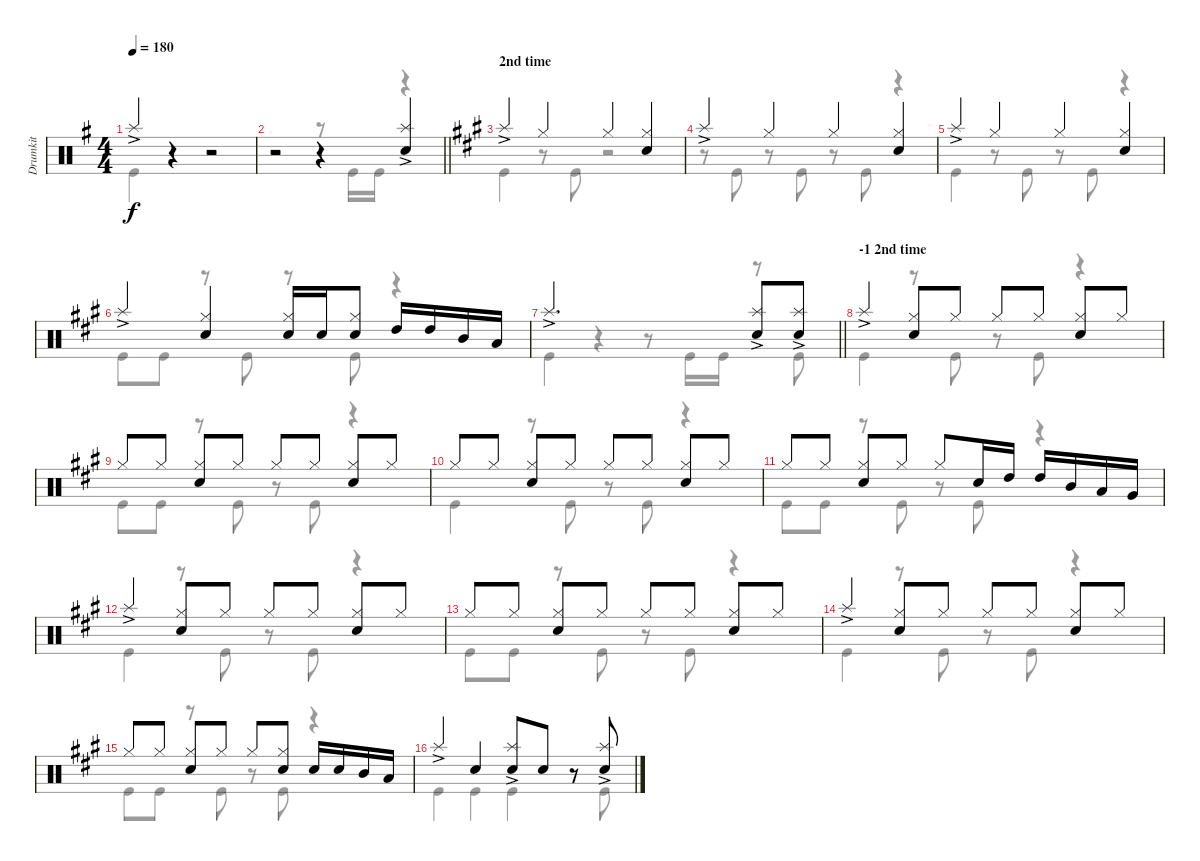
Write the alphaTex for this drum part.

\track ("Drumkit" "Drumkit") {instrument percussion}
\staff {score}
\articulation defaults
\voice
\ts (4 4)
\tempo 180
\clef neutral
\ks g "Splash (hit)"{ac}.4{dy f}
r.4 r.2 |
\barLineRight lightlight
r.2 r.4 ("Splash (hit)"{ac} "Snare (hit) 2").4 |
\section ("" "2nd time")
\ks a "Splash (hit)"{ac}.4 "Hi-Hat (closed)".4 "Hi-Hat (closed)".4
("Hi-Hat (closed)" "Snare (hit) 2").4 |
"Splash (hit)"{ac}.4 "Hi-Hat (closed)".4 "Hi-Hat (closed)".4 ("Hi-Hat (closed)" "Snare (hit) 2").4 |
"Splash (hit)"{ac}.4 "Hi-Hat (closed)".4 "Hi-Hat (closed)".4 ("Hi-Hat (closed)" "Snare (hit) 2").4 |
"Splash (hit)"{ac}.4 ("Hi-Hat (closed)" "Snare (hit) 2").4 ("Snare (hit) 2" "Hi-Hat (closed)").16 "Snare (hit) 2".16 ("Snare (hit) 2" "Hi-Hat (closed)").8 "High Tom (hit)".16 "High Tom (hit)".16 "Mid Tom (hit)".16 "Low Tom (hit)".16 |
\barLineRight lightlight "Splash (hit)"{ac}.2{d}
("Splash (hit)"{ac} "Snare (hit) 2").8 ("Snare (hit) 2" "Splash (hit)"{ac}).8 |
\section ("" "-1 2nd time")
"Splash (hit)"{ac}.4 ("Snare (hit) 2" "Hi-Hat (closed)").8 "Hi-Hat (closed)".8 "Hi-Hat (closed)".8 "Hi-Hat (closed)".8 ("Hi-Hat (closed)" "Snare (hit) 2").8 "Hi-Hat (closed)".8 |
"Hi-Hat (closed)".8 "Hi-Hat (closed)".8 ("Hi-Hat (closed)" "Snare (hit) 2").8 "Hi-Hat (closed)".8 "Hi-Hat (closed)".8 "Hi-Hat (closed)".8 ("Hi-Hat (closed)" "Snare (hit) 2").8 "Hi-Hat (closed)".8 |
"Hi-Hat (closed)".8 "Hi-Hat (closed)".8 ("Snare (hit) 2" "Hi-Hat (closed)").8 "Hi-Hat (closed)".8 "Hi-Hat (closed)".8 "Hi-Hat (closed)".8 ("Hi-Hat (closed)" "Snare (hit) 2").8 "Hi-Hat (closed)".8 |
"Hi-Hat (closed)".8 "Hi-Hat (closed)".8 ("Hi-Hat (closed)" "Snare (hit) 2").8 "Hi-Hat (closed)".8 "Hi-Hat (closed)".8 "Snare (hit) 2".16 "High Tom (hit)".16 "High Tom (hit)".16 "Mid Tom (hit)".16 "Low Tom (hit)".16 "Very Low Tom (hit)".16 |
"Splash (hit)"{ac}.4 ("Snare (hit) 2" "Hi-Hat (closed)").8 "Hi-Hat (closed)".8 "Hi-Hat (closed)".8 "Hi-Hat (closed)".8 ("Hi-Hat (closed)" "Snare (hit) 2").8 "Hi-Hat (closed)".8 |
"Hi-Hat (closed)".8 "Hi-Hat (closed)".8 ("Hi-Hat (closed)" "Snare (hit) 2").8 "Hi-Hat (closed)".8 "Hi-Hat (closed)".8 "Hi-Hat (closed)".8 ("Hi-Hat (closed)" "Snare (hit) 2").8 "Hi-Hat (closed)".8 |
"Splash (hit)"{ac}.4 ("Snare (hit) 2" "Hi-Hat (closed)").8 "Hi-Hat (closed)".8 "Hi-Hat (closed)".8 "Hi-Hat (closed)".8 ("Hi-Hat (closed)" "Snare (hit) 2").8 "Hi-Hat (closed)".8 |
"Hi-Hat (closed)".8 "Hi-Hat (closed)".8 ("Hi-Hat (closed)" "Snare (hit) 2").8 "Hi-Hat (closed)".8 "Hi-Hat (closed)".8 ("Snare (hit) 2" "Hi-Hat (closed)").8 "Snare (hit) 2".16 "Snare (hit) 2".16 "Mid Tom (hit)".16 "Low Tom (hit)".16 |
"Splash (hit)"{ac}.4 "Snare (hit) 2".4 ("Snare (hit) 2" "Splash (hit)"{ac}).8 "Snare (hit) 2".8 r.8 ("Snare (hit) 2" "Splash (hit)"{ac}).8
\voice
\clef neutral
\ottava regular
\simile none
\ks g "Kick (hit)".4{dy f}
r.4 r.2 |
\barLineRight lightlight
r.2 r.8 "Kick (hit)".16 "Kick (hit)".16 r.4 |
\ks a "Kick (hit)".4
r.8 "Kick (hit)".8 r.2 |
r.8 "Kick (hit)".8 r.8 "Kick (hit)".8 r.8 "Kick (hit)".8 r.4 |
"Kick (hit)".4 r.8 "Kick (hit)".8 r.8 "Kick (hit)".8 r.4 |
"Kick (hit)".8 "Kick (hit)".8 r.8 "Kick (hit)".8 r.8 "Kick (hit)".8 r.4 |
\barLineRight lightlight "Kick (hit)".4
r.4 r.8 "Kick (hit)".16 "Kick (hit)".16 r.8 "Kick (hit)".8 |
"Kick (hit)".4 r.8 "Kick (hit)".8 r.8 "Kick (hit)".8 r.4 |
"Kick (hit)".8 "Kick (hit)".8 r.8 "Kick (hit)".8 r.8 "Kick (hit)".8 r.4 |
"Kick (hit)".4 r.8 "Kick (hit)".8 r.8 "Kick (hit)".8 r.4 |
"Kick (hit)".8 "Kick (hit)".8 r.8 "Kick (hit)".8 r.8 "Kick (hit)".8 r.4 |
"Kick (hit)".4 r.8 "Kick (hit)".8 r.8 "Kick (hit)".8 r.4 |
"Kick (hit)".8 "Kick (hit)".8 r.8 "Kick (hit)".8 r.8 "Kick (hit)".8 r.4 |
"Kick (hit)".4 r.8 "Kick (hit)".8 r.8 "Kick (hit)".8 r.4 |
"Kick (hit)".8 "Kick (hit)".8 r.8 "Kick (hit)".8 r.8 "Kick (hit)".8 r.4 |
"Kick (hit)".4 "Kick (hit)".4 "Kick (hit)".4 r.8 "Kick (hit)".8
